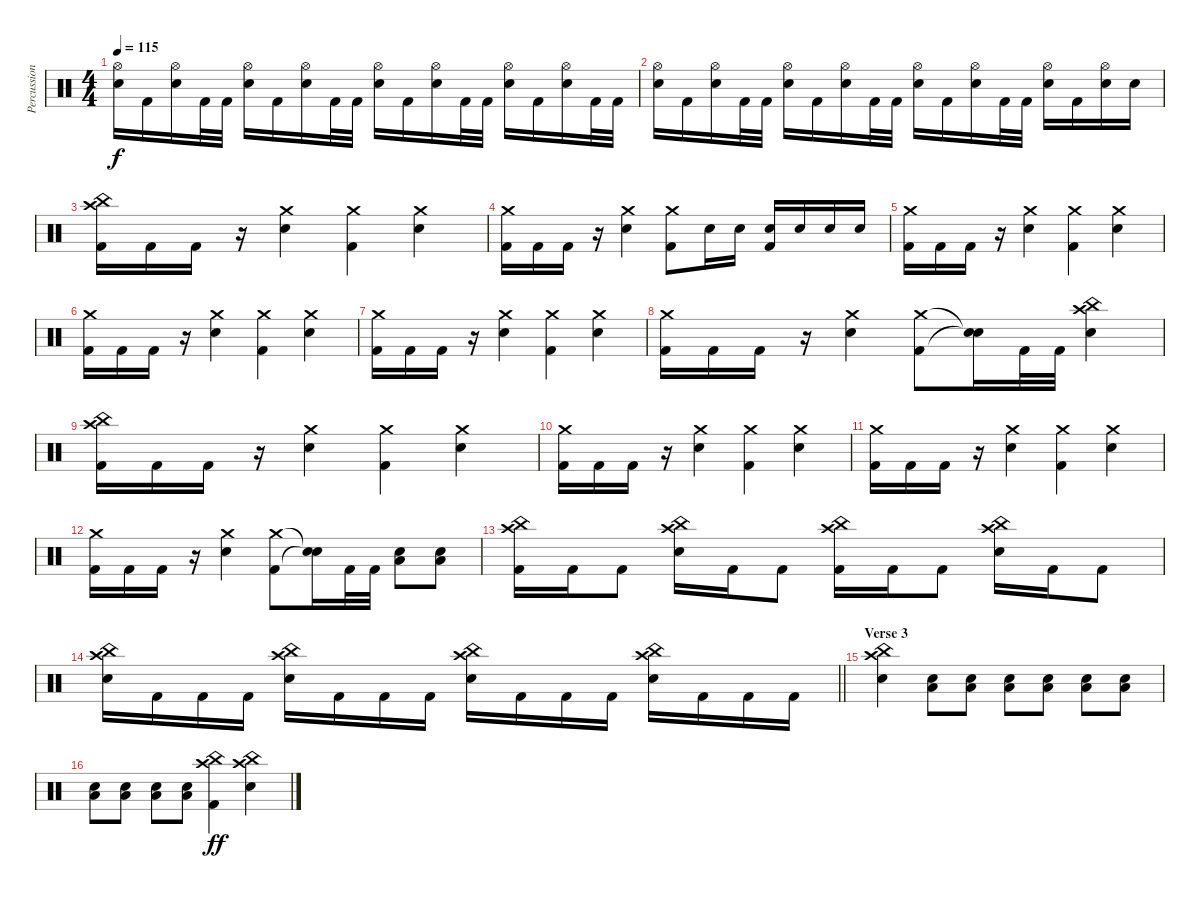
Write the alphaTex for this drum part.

\track ("Percussion" "Percussion") {instrument percussion}
\staff {score}
\articulation defaults
\ts (4 4)
\tempo 115
\clef neutral
\ks c
("Electric Snare (hit)" "Hi-Hat (open)").16{dy f} "Kick (hit) 2".16 ("Electric Snare (hit)" "Hi-Hat (open)").16 "Kick (hit) 2".32 "Kick (hit) 2".32 ("Electric Snare (hit)" "Hi-Hat (open)").16 "Kick (hit) 2".16 ("Electric Snare (hit)" "Hi-Hat (open)").16 "Kick (hit) 2".32 "Kick (hit) 2".32 ("Electric Snare (hit)" "Hi-Hat (open)").16 "Kick (hit) 2".16 ("Electric Snare (hit)" "Hi-Hat (open)").16 "Kick (hit) 2".32 "Kick (hit) 2".32 ("Electric Snare (hit)" "Hi-Hat (open)").16 "Kick (hit) 2".16 ("Electric Snare (hit)" "Hi-Hat (open)").16 "Kick (hit) 2".32 "Kick (hit) 2".32 |
("Electric Snare (hit)" "Hi-Hat (open)").16 "Kick (hit) 2".16 ("Electric Snare (hit)" "Hi-Hat (open)").16 "Kick (hit) 2".32 "Kick (hit) 2".32 ("Electric Snare (hit)" "Hi-Hat (open)").16 "Kick (hit) 2".16 ("Electric Snare (hit)" "Hi-Hat (open)").16 "Kick (hit) 2".32 "Kick (hit) 2".32 ("Electric Snare (hit)" "Hi-Hat (open)").16 "Kick (hit) 2".16 ("Electric Snare (hit)" "Hi-Hat (open)").16 "Kick (hit) 2".32 "Kick (hit) 2".32 ("Electric Snare (hit)" "Hi-Hat (open)").16 "Kick (hit) 2".16 ("Electric Snare (hit)" "Hi-Hat (open)").16 "Electric Snare (hit)".16 |
("Kick (hit) 2" "Crash high (hit)" "China (hit)").16 "Kick (hit) 2".16 "Kick (hit) 2".16 r.16 ("Electric Snare (hit)" "Crash medium (hit)").4 ("Kick (hit) 2" "Crash medium (hit)").4 ("Electric Snare (hit)" "Crash medium (hit)").4 |
("Kick (hit) 2" "Crash medium (hit)").16 "Kick (hit) 2".16 "Kick (hit) 2".16 r.16 ("Electric Snare (hit)" "Crash medium (hit)").4 ("Kick (hit) 2" "Crash medium (hit)").8 "Electric Snare (hit)".16 "Electric Snare (hit)".16 ("Electric Snare (hit)" "Kick (hit) 2").16 "Electric Snare (hit)".16 "Electric Snare (hit)".16 "Electric Snare (hit)".16 |
("Kick (hit) 2" "Crash medium (hit)").16 "Kick (hit) 2".16 "Kick (hit) 2".16 r.16 ("Electric Snare (hit)" "Crash medium (hit)").4 ("Kick (hit) 2" "Crash medium (hit)").4 ("Electric Snare (hit)" "Crash medium (hit)").4 |
("Kick (hit) 2" "Crash medium (hit)").16 "Kick (hit) 2".16 "Kick (hit) 2".16 r.16 ("Electric Snare (hit)" "Crash medium (hit)").4 ("Kick (hit) 2" "Crash medium (hit)").4 ("Electric Snare (hit)" "Crash medium (hit)").4 |
("Kick (hit) 2" "Crash medium (hit)").16 "Kick (hit) 2".16 "Kick (hit) 2".16 r.16 ("Electric Snare (hit)" "Crash medium (hit)").4 ("Kick (hit) 2" "Crash medium (hit)").4 ("Electric Snare (hit)" "Crash medium (hit)").4 |
("Kick (hit) 2" "Crash medium (hit)").16 "Kick (hit) 2".16 "Kick (hit) 2".16 r.16 ("Electric Snare (hit)" "Crash medium (hit)").4 ("Kick (hit) 2" "Crash medium (hit)").8 ("Snare (hit)"{t} "Snare (hit)"{t}).16 "Kick (hit) 2".32 "Kick (hit) 2".32 ("Electric Snare (hit)" "Crash high (hit)" "China (hit)").4 |
("Kick (hit) 2" "Crash high (hit)" "China (hit)").16 "Kick (hit) 2".16 "Kick (hit) 2".16 r.16 ("Electric Snare (hit)" "Crash medium (hit)").4 ("Kick (hit) 2" "Crash medium (hit)").4 ("Electric Snare (hit)" "Crash medium (hit)").4 |
("Kick (hit) 2" "Crash medium (hit)").16 "Kick (hit) 2".16 "Kick (hit) 2".16 r.16 ("Electric Snare (hit)" "Crash medium (hit)").4 ("Kick (hit) 2" "Crash medium (hit)").4 ("Electric Snare (hit)" "Crash medium (hit)").4 |
("Kick (hit) 2" "Crash medium (hit)").16 "Kick (hit) 2".16 "Kick (hit) 2".16 r.16 ("Electric Snare (hit)" "Crash medium (hit)").4 ("Kick (hit) 2" "Crash medium (hit)").4 ("Electric Snare (hit)" "Crash medium (hit)").4 |
("Kick (hit) 2" "Crash medium (hit)").16 "Kick (hit) 2".16 "Kick (hit) 2".16 r.16 ("Electric Snare (hit)" "Crash medium (hit)").4 ("Kick (hit) 2" "Crash medium (hit)").8 ("Snare (hit)"{t} "Snare (hit)"{t}).16 "Kick (hit) 2".32 "Kick (hit) 2".32 ("Electric Snare (hit)" "Low Tom (hit)").8 ("Electric Snare (hit)" "Low Tom (hit)").8 |
("Kick (hit) 2" "Crash high (hit)" "China (hit)").16 "Kick (hit) 2".16 "Kick (hit) 2".8 ("Electric Snare (hit)" "Crash high (hit)" "China (hit)").16 "Kick (hit) 2".16 "Kick (hit) 2".8 ("Kick (hit) 2" "Crash high (hit)" "China (hit)").16 "Kick (hit) 2".16 "Kick (hit) 2".8 ("Electric Snare (hit)" "Crash high (hit)" "China (hit)").16 "Kick (hit) 2".16 "Kick (hit) 2".8 |
\barLineRight lightlight
("Electric Snare (hit)" "Crash high (hit)" "China (hit)").16 "Kick (hit) 2".16 "Kick (hit) 2".16 "Kick (hit) 2".16 ("Electric Snare (hit)" "Crash high (hit)" "China (hit)").16 "Kick (hit) 2".16 "Kick (hit) 2".16 "Kick (hit) 2".16 ("Electric Snare (hit)" "Crash high (hit)" "China (hit)").16 "Kick (hit) 2".16 "Kick (hit) 2".16 "Kick (hit) 2".16 ("Electric Snare (hit)" "Crash high (hit)" "China (hit)").16 "Kick (hit) 2".16 "Kick (hit) 2".16 "Kick (hit) 2".16 |
\section ("" "Verse 3")
("Electric Snare (hit)" "Crash high (hit)" "China (hit)").4 ("Electric Snare (hit)" "Low Tom (hit)").8 ("Electric Snare (hit)" "Low Tom (hit)").8 ("Electric Snare (hit)" "Low Tom (hit)").8 ("Electric Snare (hit)" "Low Tom (hit)").8 ("Electric Snare (hit)" "Low Tom (hit)").8 ("Electric Snare (hit)" "Low Tom (hit)").8 |
("Electric Snare (hit)" "Low Tom (hit)").8 ("Electric Snare (hit)" "Low Tom (hit)").8 ("Electric Snare (hit)" "Low Tom (hit)").8 ("Electric Snare (hit)" "Low Tom (hit)").8 ("Kick (hit) 2" "Crash high (hit)" "China (hit)").4{dy ff} ("Electric Snare (hit)" "Crash high (hit)" "China (hit)").4
